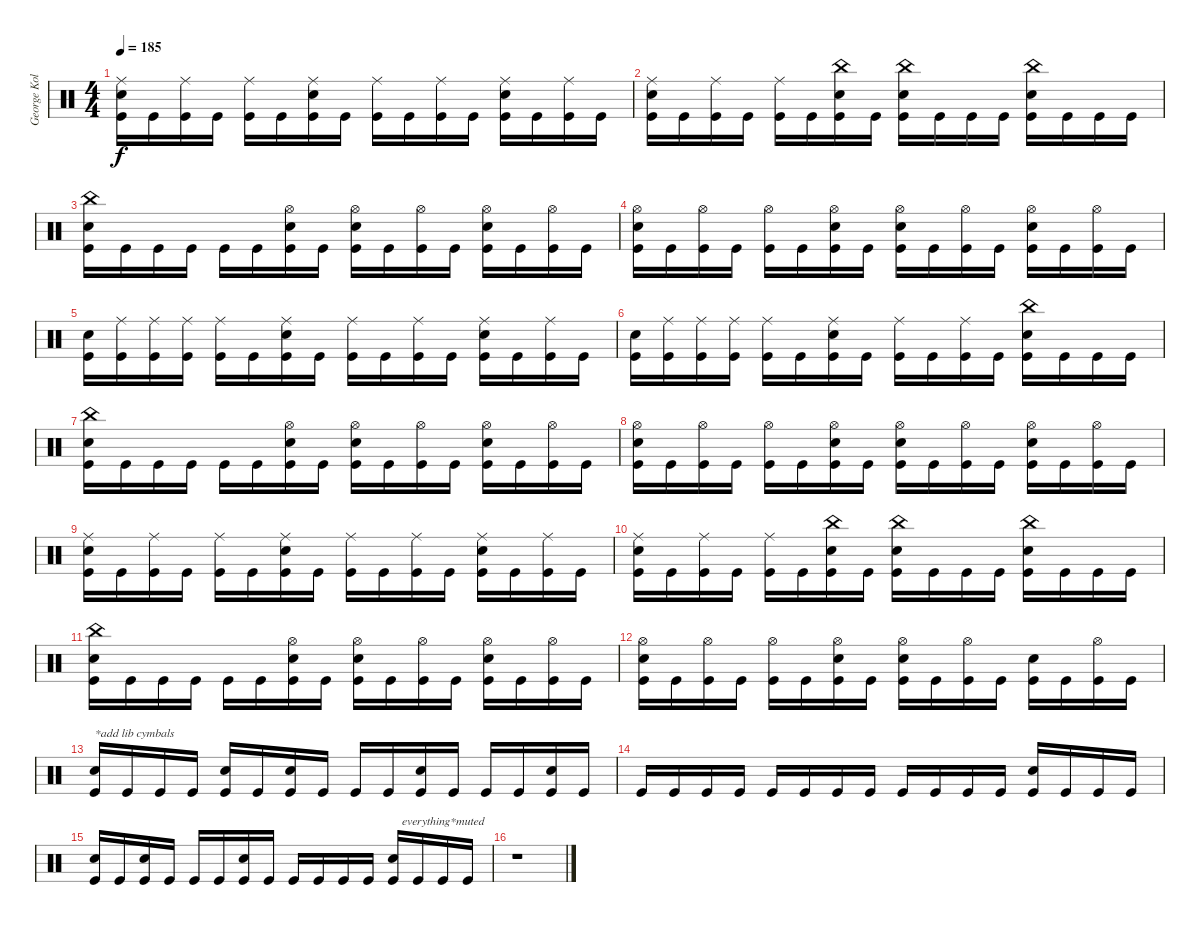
\track ("George Kollias" "George Kol") {instrument percussion}
\staff {score}
\articulation defaults
\ts (4 4)
\tempo 185
\clef neutral
\ks c
("Ride (middle)" "Snare (hit) 2" "Kick (hit)").16{dy f} "Kick (hit)".16 ("Ride (middle)" "Kick (hit)").16 "Kick (hit)".16 ("Ride (middle)" "Kick (hit)").16 "Kick (hit)".16 ("Ride (middle)" "Snare (hit) 2" "Kick (hit)").16 "Kick (hit)".16 ("Ride (middle)" "Kick (hit)").16 "Kick (hit)".16 ("Ride (middle)" "Kick (hit)").16 "Kick (hit)".16 ("Ride (middle)" "Snare (hit) 2" "Kick (hit)").16 "Kick (hit)".16 ("Ride (middle)" "Kick (hit)").16 "Kick (hit)".16 |
("Ride (middle)" "Snare (hit) 2" "Kick (hit)").16 "Kick (hit)".16 ("Ride (middle)" "Kick (hit)").16 "Kick (hit)".16 ("Ride (middle)" "Kick (hit)").16 "Kick (hit)".16 ("China (hit)" "Snare (hit) 2" "Kick (hit)").16 "Kick (hit)".16 ("China (hit)" "Snare (hit) 2" "Kick (hit)").16 "Kick (hit)".16 "Kick (hit)".16 "Kick (hit)".16 ("China (hit)" "Snare (hit) 2" "Kick (hit)").16 "Kick (hit)".16 "Kick (hit)".16 "Kick (hit)".16 |
("China (hit)" "Snare (hit) 2" "Kick (hit)").16 "Kick (hit)".16 "Kick (hit)".16 "Kick (hit)".16 "Kick (hit)".16 "Kick (hit)".16 ("Hi-Hat (open)" "Snare (hit) 2" "Kick (hit)").16 "Kick (hit)".16 ("Hi-Hat (open)" "Snare (hit) 2" "Kick (hit)").16 "Kick (hit)".16 ("Hi-Hat (open)" "Kick (hit)").16 "Kick (hit)".16 ("Hi-Hat (open)" "Snare (hit) 2" "Kick (hit)").16 "Kick (hit)".16 ("Hi-Hat (open)" "Kick (hit)").16 "Kick (hit)".16 |
("Hi-Hat (open)" "Snare (hit) 2" "Kick (hit)").16 "Kick (hit)".16 ("Hi-Hat (open)" "Kick (hit)").16 "Kick (hit)".16 ("Hi-Hat (open)" "Kick (hit)").16 "Kick (hit)".16 ("Hi-Hat (open)" "Snare (hit) 2" "Kick (hit)").16 "Kick (hit)".16 ("Hi-Hat (open)" "Snare (hit) 2" "Kick (hit)").16 "Kick (hit)".16 ("Hi-Hat (open)" "Kick (hit)").16 "Kick (hit)".16 ("Hi-Hat (open)" "Snare (hit) 2" "Kick (hit)").16 "Kick (hit)".16 ("Hi-Hat (open)" "Kick (hit)").16 "Kick (hit)".16 |
("Snare (hit) 2" "Kick (hit)").16 ("Ride (middle)" "Kick (hit)").16 ("Ride (middle)" "Kick (hit)").16 ("Ride (middle)" "Kick (hit)").16 ("Ride (middle)" "Kick (hit)").16 "Kick (hit)".16 ("Ride (middle)" "Snare (hit) 2" "Kick (hit)").16 "Kick (hit)".16 ("Ride (middle)" "Kick (hit)").16 "Kick (hit)".16 ("Ride (middle)" "Kick (hit)").16 "Kick (hit)".16 ("Ride (middle)" "Snare (hit) 2" "Kick (hit)").16 "Kick (hit)".16 ("Ride (middle)" "Kick (hit)").16 "Kick (hit)".16 |
("Snare (hit) 2" "Kick (hit)").16 ("Ride (middle)" "Kick (hit)").16 ("Ride (middle)" "Kick (hit)").16 ("Ride (middle)" "Kick (hit)").16 ("Ride (middle)" "Kick (hit)").16 "Kick (hit)".16 ("Ride (middle)" "Snare (hit) 2" "Kick (hit)").16 "Kick (hit)".16 ("Ride (middle)" "Kick (hit)").16 "Kick (hit)".16 ("Ride (middle)" "Kick (hit)").16 "Kick (hit)".16 ("China (hit)" "Snare (hit) 2" "Kick (hit)").16 "Kick (hit)".16 "Kick (hit)".16 "Kick (hit)".16 |
("China (hit)" "Snare (hit) 2" "Kick (hit)").16 "Kick (hit)".16 "Kick (hit)".16 "Kick (hit)".16 "Kick (hit)".16 "Kick (hit)".16 ("Hi-Hat (open)" "Snare (hit) 2" "Kick (hit)").16 "Kick (hit)".16 ("Hi-Hat (open)" "Snare (hit) 2" "Kick (hit)").16 "Kick (hit)".16 ("Hi-Hat (open)" "Kick (hit)").16 "Kick (hit)".16 ("Hi-Hat (open)" "Snare (hit) 2" "Kick (hit)").16 "Kick (hit)".16 ("Hi-Hat (open)" "Kick (hit)").16 "Kick (hit)".16 |
("Hi-Hat (open)" "Snare (hit) 2" "Kick (hit)").16 "Kick (hit)".16 ("Hi-Hat (open)" "Kick (hit)").16 "Kick (hit)".16 ("Hi-Hat (open)" "Kick (hit)").16 "Kick (hit)".16 ("Hi-Hat (open)" "Snare (hit) 2" "Kick (hit)").16 "Kick (hit)".16 ("Hi-Hat (open)" "Snare (hit) 2" "Kick (hit)").16 "Kick (hit)".16 ("Hi-Hat (open)" "Kick (hit)").16 "Kick (hit)".16 ("Hi-Hat (open)" "Snare (hit) 2" "Kick (hit)").16 "Kick (hit)".16 ("Hi-Hat (open)" "Kick (hit)").16 "Kick (hit)".16 |
("Ride (middle)" "Snare (hit) 2" "Kick (hit)").16 "Kick (hit)".16 ("Ride (middle)" "Kick (hit)").16 "Kick (hit)".16 ("Ride (middle)" "Kick (hit)").16 "Kick (hit)".16 ("Ride (middle)" "Snare (hit) 2" "Kick (hit)").16 "Kick (hit)".16 ("Ride (middle)" "Kick (hit)").16 "Kick (hit)".16 ("Ride (middle)" "Kick (hit)").16 "Kick (hit)".16 ("Ride (middle)" "Snare (hit) 2" "Kick (hit)").16 "Kick (hit)".16 ("Ride (middle)" "Kick (hit)").16 "Kick (hit)".16 |
("Ride (middle)" "Snare (hit) 2" "Kick (hit)").16 "Kick (hit)".16 ("Ride (middle)" "Kick (hit)").16 "Kick (hit)".16 ("Ride (middle)" "Kick (hit)").16 "Kick (hit)".16 ("China (hit)" "Snare (hit) 2" "Kick (hit)").16 "Kick (hit)".16 ("China (hit)" "Snare (hit) 2" "Kick (hit)").16 "Kick (hit)".16 "Kick (hit)".16 "Kick (hit)".16 ("China (hit)" "Snare (hit) 2" "Kick (hit)").16 "Kick (hit)".16 "Kick (hit)".16 "Kick (hit)".16 |
("China (hit)" "Snare (hit) 2" "Kick (hit)").16 "Kick (hit)".16 "Kick (hit)".16 "Kick (hit)".16 "Kick (hit)".16 "Kick (hit)".16 ("Hi-Hat (open)" "Snare (hit) 2" "Kick (hit)").16 "Kick (hit)".16 ("Hi-Hat (open)" "Snare (hit) 2" "Kick (hit)").16 "Kick (hit)".16 ("Hi-Hat (open)" "Kick (hit)").16 "Kick (hit)".16 ("Hi-Hat (open)" "Snare (hit) 2" "Kick (hit)").16 "Kick (hit)".16 ("Hi-Hat (open)" "Kick (hit)").16 "Kick (hit)".16 |
("Hi-Hat (open)" "Snare (hit) 2" "Kick (hit)").16 "Kick (hit)".16 ("Hi-Hat (open)" "Kick (hit)").16 "Kick (hit)".16 ("Hi-Hat (open)" "Kick (hit)").16 "Kick (hit)".16 ("Hi-Hat (open)" "Snare (hit) 2" "Kick (hit)").16 "Kick (hit)".16 ("Hi-Hat (open)" "Snare (hit) 2" "Kick (hit)").16 "Kick (hit)".16 ("Hi-Hat (open)" "Kick (hit)").16 "Kick (hit)".16 ("Snare (hit) 2" "Kick (hit)").16 "Kick (hit)".16 ("Hi-Hat (open)" "Kick (hit)").16 "Kick (hit)".16 |
("Snare (hit) 2" "Kick (hit)").16{txt "*add lib cymbals"} "Kick (hit)".16 "Kick (hit)".16 "Kick (hit)".16 ("Snare (hit) 2" "Kick (hit)").16 "Kick (hit)".16 ("Snare (hit) 2" "Kick (hit)").16 "Kick (hit)".16 "Kick (hit)".16 "Kick (hit)".16 ("Snare (hit) 2" "Kick (hit)").16 "Kick (hit)".16 "Kick (hit)".16 "Kick (hit)".16 ("Snare (hit) 2" "Kick (hit)").16 "Kick (hit)".16 |
"Kick (hit)".16 "Kick (hit)".16 "Kick (hit)".16 "Kick (hit)".16 "Kick (hit)".16 "Kick (hit)".16 "Kick (hit)".16 "Kick (hit)".16 "Kick (hit)".16 "Kick (hit)".16 "Kick (hit)".16 "Kick (hit)".16 ("Snare (hit) 2" "Kick (hit)").16 "Kick (hit)".16 "Kick (hit)".16 "Kick (hit)".16 |
("Snare (hit) 2" "Kick (hit)").16 "Kick (hit)".16 ("Snare (hit) 2" "Kick (hit)").16 "Kick (hit)".16 "Kick (hit)".16 "Kick (hit)".16 ("Snare (hit) 2" "Kick (hit)").16 "Kick (hit)".16 "Kick (hit)".16 "Kick (hit)".16 "Kick (hit)".16 "Kick (hit)".16 ("Snare (hit) 2" "Kick (hit)").16{txt "   everything*muted"} "Kick (hit)".16 "Kick (hit)".16 "Kick (hit)".16 |
r.1
